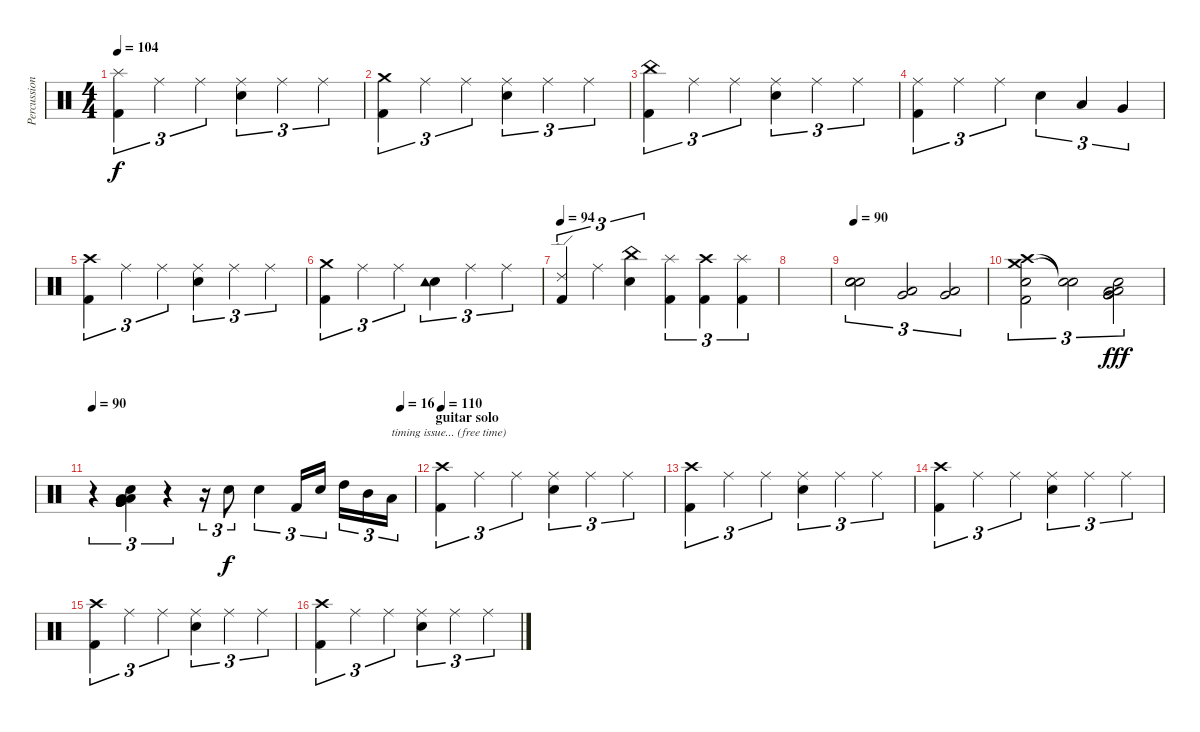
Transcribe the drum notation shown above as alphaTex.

\track ("Percussion" "Percussion") {instrument percussion}
\staff {score}
\articulation defaults
\ts (4 4)
\tempo 104
\clef neutral
\ks c
("Splash (hit)" "Kick (hit) 2").4{tu (3 2) dy f} "Ride (middle)".4{tu (3 2)} "Ride (middle)".4{tu (3 2)} ("Electric Snare (hit)" "Ride (middle)").4{tu (3 2)} "Ride (middle)".4{tu (3 2)} "Ride (middle)".4{tu (3 2)} |
("Crash medium (hit)" "Kick (hit) 2").4{tu (3 2)} "Ride (middle)".4{tu (3 2)} "Ride (middle)".4{tu (3 2)} ("Electric Snare (hit)" "Ride (middle)").4{tu (3 2)} "Ride (middle)".4{tu (3 2)} "Ride (middle)".4{tu (3 2)} |
("China (hit)" "Kick (hit) 2").4{tu (3 2)} "Ride (middle)".4{tu (3 2)} "Ride (middle)".4{tu (3 2)} ("Electric Snare (hit)" "Ride (middle)").4{tu (3 2)} "Ride (middle)".4{tu (3 2)} "Ride (middle)".4{tu (3 2)} |
("Ride (middle)" "Kick (hit) 2").4{tu (3 2)} "Ride (middle)".4{tu (3 2)} "Ride (middle)".4{tu (3 2)} "Electric Snare (hit)".4{tu (3 2)} "Low Tom (hit)".4{tu (3 2)} "Very Low Tom (hit)".4{tu (3 2)} |
("Crash high (hit)" "Kick (hit) 2").4{tu (3 2)} "Ride (middle)".4{tu (3 2)} "Ride (middle)".4{tu (3 2)} ("Electric Snare (hit)" "Ride (middle)").4{tu (3 2)} "Ride (middle)".4{tu (3 2)} "Ride (middle)".4{tu (3 2)} |
("Crash medium (hit)" "Kick (hit) 2").4{tu (3 2)} "Ride (middle)".4{tu (3 2)} "Ride (middle)".4{tu (3 2)} ("Electric Snare (hit)" "Tambourine (hit)").4{tu (3 2)} "Ride (middle)".4{tu (3 2)} "Ride (middle)".4{tu (3 2)} |
\tempo 94
("Ride (edge) 2" "Kick (hit) 2").4{tu (3 2)} "Ride (middle)".4{tu (3 2)} ("China (hit)" "Electric Snare (hit)").4{tu (3 2)} ("Splash (hit)" "Kick (hit) 2").4{tu (3 2)} ("Crash high (hit)" "Kick (hit) 2").4{tu (3 2)} ("Splash (hit)" "Kick (hit) 2").4{tu (3 2)} |
|
\tempo 90
("Electric Snare (hit)" "Electric Snare (hit)" "Electric Snare (hit)").2{tu (3 2)} ("Low Tom (hit)" "Very Low Tom (hit)").2{tu (3 2)} ("Low Floor Tom (hit)" "Very Low Tom (hit)").2{tu (3 2)} |
("Crash medium (hit)" "Crash high (hit)" "Electric Snare (hit)" "Kick (hit) 2").2{tu (3 2)} ("Snare (hit)"{t} "Snare (hit)"{t}).2{tu (3 2)} ("Low Floor Tom (hit)" "Very Low Tom (hit)" "Low Floor Tom (hit)" "Very Low Tom (hit)" "Very Low Tom (hit)" "Electric Snare (hit)").2{tu (3 2) dy fff} |
\tempo 90
\tempo (16 0.9583333333333334)
r.4{tu (3 2)} ("Very Low Tom (hit)" "Very Low Tom (hit)" "Very Low Tom (hit)" "Low Floor Tom (hit)" "Low Floor Tom (hit)" "Electric Snare (hit)").4{tu (3 2)} r.4{tu (3 2)} r.16{tu (3 2)} "Electric Snare (hit)".8{tu (3 2) dy f} "Electric Snare (hit)".4{tu (3 2)} "Kick (hit) 2".16{tu (3 2)} "Electric Snare (hit)".16{tu (3 2)} "High Tom (hit)".16{tu (3 2)} "Mid Tom (hit)".16{tu (3 2)} "Low Tom (hit)".16{tu (3 2) txt "timing issue... (free time)"} |
\section ("" "guitar solo")
\tempo 110
("Crash high (hit)" "Kick (hit) 2").4{tu (3 2)} "Ride (middle)".4{tu (3 2)} "Ride (middle)".4{tu (3 2)} ("Electric Snare (hit)" "Ride (middle)").4{tu (3 2)} "Ride (middle)".4{tu (3 2)} "Ride (middle)".4{tu (3 2)} |
("Crash high (hit)" "Kick (hit) 2").4{tu (3 2)} "Ride (middle)".4{tu (3 2)} "Ride (middle)".4{tu (3 2)} ("Electric Snare (hit)" "Ride (middle)").4{tu (3 2)} "Ride (middle)".4{tu (3 2)} "Ride (middle)".4{tu (3 2)} |
("Crash high (hit)" "Kick (hit) 2").4{tu (3 2)} "Ride (middle)".4{tu (3 2)} "Ride (middle)".4{tu (3 2)} ("Electric Snare (hit)" "Ride (middle)").4{tu (3 2)} "Ride (middle)".4{tu (3 2)} "Ride (middle)".4{tu (3 2)} |
("Crash high (hit)" "Kick (hit) 2").4{tu (3 2)} "Ride (middle)".4{tu (3 2)} "Ride (middle)".4{tu (3 2)} ("Electric Snare (hit)" "Ride (middle)").4{tu (3 2)} "Ride (middle)".4{tu (3 2)} "Ride (middle)".4{tu (3 2)} |
("Crash high (hit)" "Kick (hit) 2").4{tu (3 2)} "Ride (middle)".4{tu (3 2)} "Ride (middle)".4{tu (3 2)} ("Electric Snare (hit)" "Ride (middle)").4{tu (3 2)} "Ride (middle)".4{tu (3 2)} "Ride (middle)".4{tu (3 2)}
